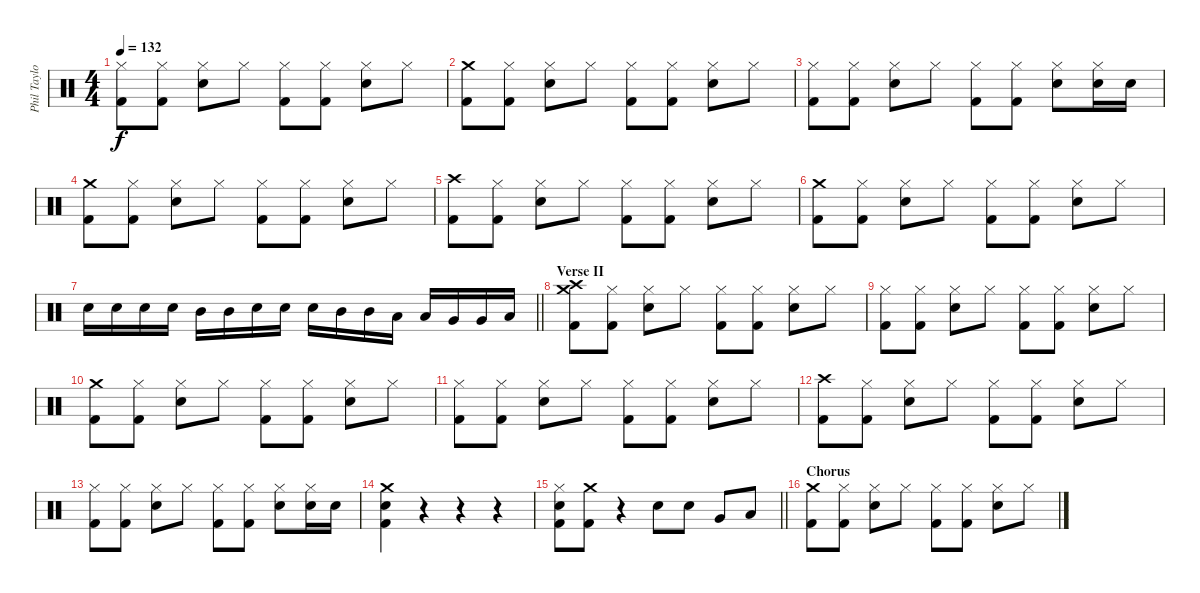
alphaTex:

\track ("Phil Taylor" "Phil Taylo") {instrument percussion}
\staff {score}
\articulation defaults
\ts (4 4)
\tempo 132
\clef neutral
\ks c
("Hi-Hat (closed)" "Kick (hit) 2").8{dy f} ("Hi-Hat (closed)" "Kick (hit) 2").8 ("Hi-Hat (closed)" "Snare (hit) 2").8 "Hi-Hat (closed)".8 ("Hi-Hat (closed)" "Kick (hit) 2").8 ("Hi-Hat (closed)" "Kick (hit) 2").8 ("Hi-Hat (closed)" "Snare (hit) 2").8 "Hi-Hat (closed)".8 |
("Crash medium (hit)" "Kick (hit) 2").8 ("Hi-Hat (closed)" "Kick (hit) 2").8 ("Hi-Hat (closed)" "Snare (hit) 2").8 "Hi-Hat (closed)".8 ("Hi-Hat (closed)" "Kick (hit) 2").8 ("Hi-Hat (closed)" "Kick (hit) 2").8 ("Hi-Hat (closed)" "Snare (hit) 2").8 "Hi-Hat (closed)".8 |
("Hi-Hat (closed)" "Kick (hit) 2").8 ("Hi-Hat (closed)" "Kick (hit) 2").8 ("Hi-Hat (closed)" "Snare (hit) 2").8 "Hi-Hat (closed)".8 ("Hi-Hat (closed)" "Kick (hit) 2").8 ("Hi-Hat (closed)" "Kick (hit) 2").8 ("Hi-Hat (closed)" "Snare (hit) 2").8 ("Hi-Hat (closed)" "Snare (hit) 2").16 "Snare (hit) 2".16 |
("Crash medium (hit)" "Kick (hit) 2").8 ("Hi-Hat (closed)" "Kick (hit) 2").8 ("Hi-Hat (closed)" "Snare (hit) 2").8 "Hi-Hat (closed)".8 ("Hi-Hat (closed)" "Kick (hit) 2").8 ("Hi-Hat (closed)" "Kick (hit) 2").8 ("Hi-Hat (closed)" "Snare (hit) 2").8 "Hi-Hat (closed)".8 |
("Crash high (hit)" "Kick (hit) 2").8 ("Hi-Hat (closed)" "Kick (hit) 2").8 ("Hi-Hat (closed)" "Snare (hit) 2").8 "Hi-Hat (closed)".8 ("Hi-Hat (closed)" "Kick (hit) 2").8 ("Hi-Hat (closed)" "Kick (hit) 2").8 ("Hi-Hat (closed)" "Snare (hit) 2").8 "Hi-Hat (closed)".8 |
("Crash medium (hit)" "Kick (hit) 2").8 ("Hi-Hat (closed)" "Kick (hit) 2").8 ("Hi-Hat (closed)" "Snare (hit) 2").8 "Hi-Hat (closed)".8 ("Hi-Hat (closed)" "Kick (hit) 2").8 ("Hi-Hat (closed)" "Kick (hit) 2").8 ("Hi-Hat (closed)" "Snare (hit) 2").8 "Hi-Hat (closed)".8 |
\barLineRight lightlight "Snare (hit) 2".16 "Snare (hit) 2".16 "Snare (hit) 2".16 "Snare (hit) 2".16 "Mid Tom (hit)".16 "Mid Tom (hit)".16 "Snare (hit) 2".16 "Snare (hit) 2".16 "Snare (hit) 2".16 "Mid Tom (hit)".16 "Mid Tom (hit)".16 "Low Tom (hit)".16 "Low Tom (hit)".16 "Very Low Tom (hit)".16 "Very Low Tom (hit)".16 "Low Floor Tom (hit)".16
|
\section ("" "Verse II")
("Crash medium (hit)" "Crash high (hit)" "Kick (hit) 2").8 ("Hi-Hat (closed)" "Kick (hit) 2").8 ("Hi-Hat (closed)" "Snare (hit) 2").8 "Hi-Hat (closed)".8 ("Hi-Hat (closed)" "Kick (hit) 2").8 ("Hi-Hat (closed)" "Kick (hit) 2").8 ("Hi-Hat (closed)" "Snare (hit) 2").8 "Hi-Hat (closed)".8 |
("Hi-Hat (closed)" "Kick (hit) 2").8 ("Hi-Hat (closed)" "Kick (hit) 2").8 ("Hi-Hat (closed)" "Snare (hit) 2").8 "Hi-Hat (closed)".8 ("Hi-Hat (closed)" "Kick (hit) 2").8 ("Hi-Hat (closed)" "Kick (hit) 2").8 ("Hi-Hat (closed)" "Snare (hit) 2").8 "Hi-Hat (closed)".8 |
("Crash medium (hit)" "Kick (hit) 2").8 ("Hi-Hat (closed)" "Kick (hit) 2").8 ("Hi-Hat (closed)" "Snare (hit) 2").8 "Hi-Hat (closed)".8 ("Hi-Hat (closed)" "Kick (hit) 2").8 ("Hi-Hat (closed)" "Kick (hit) 2").8 ("Hi-Hat (closed)" "Snare (hit) 2").8 "Hi-Hat (closed)".8 |
("Hi-Hat (closed)" "Kick (hit) 2").8 ("Hi-Hat (closed)" "Kick (hit) 2").8 ("Hi-Hat (closed)" "Snare (hit) 2").8 "Hi-Hat (closed)".8 ("Hi-Hat (closed)" "Kick (hit) 2").8 ("Hi-Hat (closed)" "Kick (hit) 2").8 ("Hi-Hat (closed)" "Snare (hit) 2").8 "Hi-Hat (closed)".8 |
("Crash high (hit)" "Kick (hit) 2").8 ("Hi-Hat (closed)" "Kick (hit) 2").8 ("Hi-Hat (closed)" "Snare (hit) 2").8 "Hi-Hat (closed)".8 ("Hi-Hat (closed)" "Kick (hit) 2").8 ("Hi-Hat (closed)" "Kick (hit) 2").8 ("Hi-Hat (closed)" "Snare (hit) 2").8 "Hi-Hat (closed)".8 |
("Hi-Hat (closed)" "Kick (hit) 2").8 ("Hi-Hat (closed)" "Kick (hit) 2").8 ("Hi-Hat (closed)" "Snare (hit) 2").8 "Hi-Hat (closed)".8 ("Hi-Hat (closed)" "Kick (hit) 2").8 ("Hi-Hat (closed)" "Kick (hit) 2").8 ("Hi-Hat (closed)" "Snare (hit) 2").8 ("Hi-Hat (closed)" "Snare (hit) 2").16 "Snare (hit) 2".16 |
("Crash medium (hit)" "Snare (hit) 2" "Kick (hit) 2").4 r.4 r.4 r.4 |
\barLineRight lightlight
("Hi-Hat (closed)" "Snare (hit) 2" "Kick (hit) 2").8 ("Crash medium (hit)" "Kick (hit) 2").8 r.4 "Snare (hit) 2".8 "Snare (hit) 2".8 "Very Low Tom (hit)".8 "Low Floor Tom (hit)".8 |
\section ("" "Chorus")
("Crash medium (hit)" "Kick (hit) 2").8 ("Hi-Hat (closed)" "Kick (hit) 2").8 ("Hi-Hat (closed)" "Snare (hit) 2").8 "Hi-Hat (closed)".8 ("Hi-Hat (closed)" "Kick (hit) 2").8 ("Hi-Hat (closed)" "Kick (hit) 2").8 ("Hi-Hat (closed)" "Snare (hit) 2").8 "Hi-Hat (closed)".8
